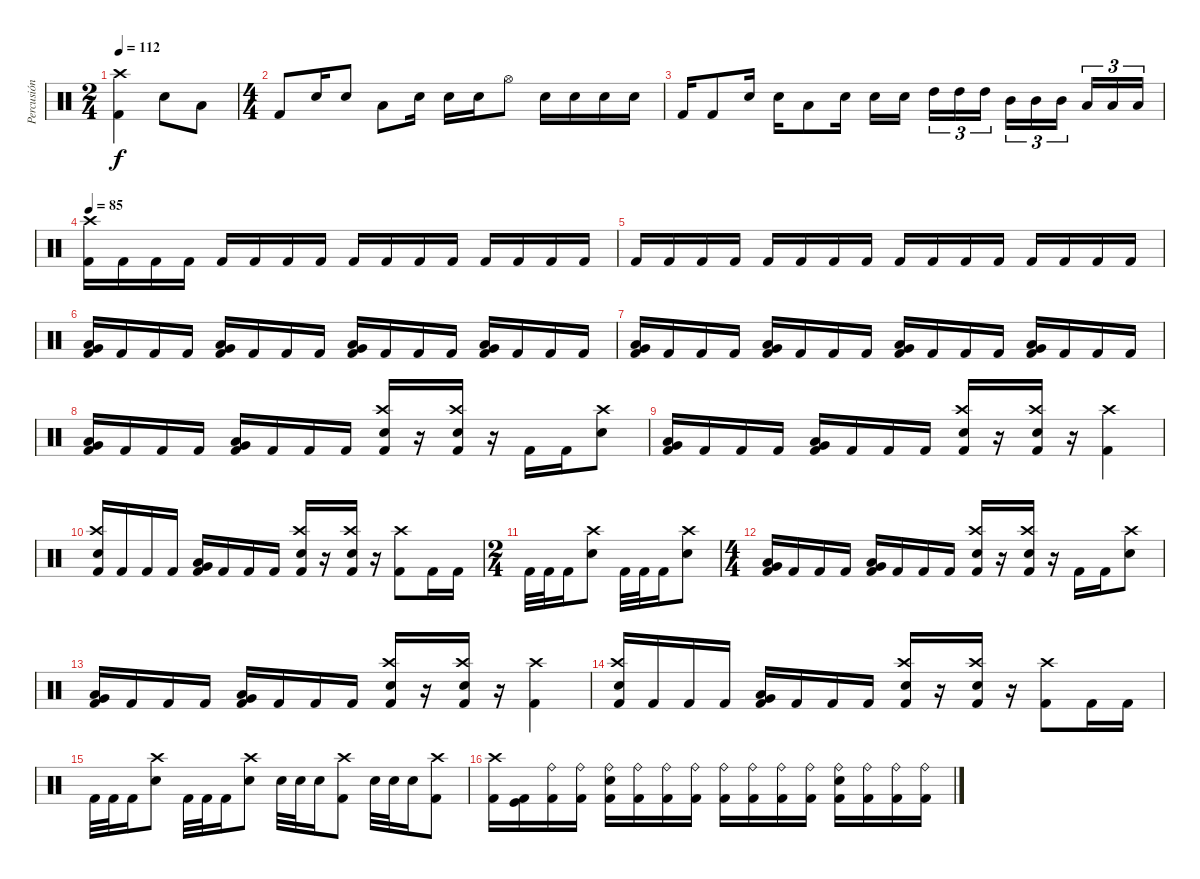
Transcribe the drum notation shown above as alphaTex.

\track ("Percusión" "Percusión") {instrument percussion}
\staff {score}
\articulation defaults
\ts (2 4)
\tempo 112
\clef neutral
\ks c
("Kick (hit) 2" "Crash high (hit)").4{dy f} "Snare (hit) 2".8 "Low Tom (hit)".8 |
\ts (4 4)
"Kick (hit) 2".8 "Snare (hit) 2".16 "Snare (hit) 2".8 "Low Tom (hit)".8 "Snare (hit) 2".16 "Snare (hit) 2".16 "Snare (hit) 2".16 "Hi-Hat (open)".8 "Snare (hit) 2".16 "Snare (hit) 2".16 "Snare (hit) 2".16 "Snare (hit) 2".16 |
"Kick (hit) 2".16 "Kick (hit) 2".8 "Snare (hit) 2".16 "Snare (hit) 2".16 "Low Tom (hit)".8 "Snare (hit) 2".16 "Snare (hit) 2".16 "Snare (hit) 2".16{beam splitsecondary} "High Tom (hit)".16{tu (3 2)} "High Tom (hit)".16{tu (3 2)} "High Tom (hit)".16{tu (3 2)} "Mid Tom (hit)".16{tu (3 2)} "Mid Tom (hit)".16{tu (3 2)} "Mid Tom (hit)".16{tu (3 2) beam splitsecondary} "Low Tom (hit)".16{tu (3 2)} "Low Tom (hit)".16{tu (3 2)} "Low Tom (hit)".16{tu (3 2)} |
\tempo 85
("Crash high (hit)" "Kick (hit) 2").16 "Kick (hit) 2".16 "Kick (hit) 2".16 "Kick (hit) 2".16 "Kick (hit) 2".16 "Kick (hit) 2".16 "Kick (hit) 2".16 "Kick (hit) 2".16 "Kick (hit) 2".16 "Kick (hit) 2".16 "Kick (hit) 2".16 "Kick (hit) 2".16 "Kick (hit) 2".16 "Kick (hit) 2".16 "Kick (hit) 2".16 "Kick (hit) 2".16 |
"Kick (hit) 2".16 "Kick (hit) 2".16 "Kick (hit) 2".16 "Kick (hit) 2".16 "Kick (hit) 2".16 "Kick (hit) 2".16 "Kick (hit) 2".16 "Kick (hit) 2".16 "Kick (hit) 2".16 "Kick (hit) 2".16 "Kick (hit) 2".16 "Kick (hit) 2".16 "Kick (hit) 2".16 "Kick (hit) 2".16 "Kick (hit) 2".16 "Kick (hit) 2".16 |
("Low Tom (hit)" "Very Low Tom (hit)" "Kick (hit) 2").16 "Kick (hit) 2".16 "Kick (hit) 2".16 "Kick (hit) 2".16 ("Very Low Tom (hit)" "Low Tom (hit)" "Kick (hit) 2").16 "Kick (hit) 2".16 "Kick (hit) 2".16 "Kick (hit) 2".16 ("Low Tom (hit)" "Very Low Tom (hit)" "Kick (hit) 2").16 "Kick (hit) 2".16 "Kick (hit) 2".16 "Kick (hit) 2".16 ("Very Low Tom (hit)" "Low Tom (hit)" "Kick (hit) 2").16 "Kick (hit) 2".16 "Kick (hit) 2".16 "Kick (hit) 2".16 |
("Low Tom (hit)" "Very Low Tom (hit)" "Kick (hit) 2").16 "Kick (hit) 2".16 "Kick (hit) 2".16 "Kick (hit) 2".16 ("Very Low Tom (hit)" "Low Tom (hit)" "Kick (hit) 2").16 "Kick (hit) 2".16 "Kick (hit) 2".16 "Kick (hit) 2".16 ("Low Tom (hit)" "Very Low Tom (hit)" "Kick (hit) 2").16 "Kick (hit) 2".16 "Kick (hit) 2".16 "Kick (hit) 2".16 ("Very Low Tom (hit)" "Low Tom (hit)" "Kick (hit) 2").16 "Kick (hit) 2".16 "Kick (hit) 2".16 "Kick (hit) 2".16 |
("Low Tom (hit)" "Very Low Tom (hit)" "Kick (hit) 2").16 "Kick (hit) 2".16 "Kick (hit) 2".16 "Kick (hit) 2".16 ("Very Low Tom (hit)" "Low Tom (hit)" "Kick (hit) 2").16 "Kick (hit) 2".16 "Kick (hit) 2".16 "Kick (hit) 2".16 ("Crash high (hit)" "Snare (hit) 2" "Kick (hit) 2").16 r.16 ("Crash high (hit)" "Snare (hit) 2" "Kick (hit) 2").16 r.16 "Kick (hit) 2".16 "Kick (hit) 2".16 ("Crash high (hit)" "Snare (hit) 2").8 |
("Low Tom (hit)" "Very Low Tom (hit)" "Kick (hit) 2").16 "Kick (hit) 2".16 "Kick (hit) 2".16 "Kick (hit) 2".16 ("Very Low Tom (hit)" "Low Tom (hit)" "Kick (hit) 2").16 "Kick (hit) 2".16 "Kick (hit) 2".16 "Kick (hit) 2".16 ("Crash high (hit)" "Snare (hit) 2" "Kick (hit) 2").16 r.16 ("Crash high (hit)" "Snare (hit) 2" "Kick (hit) 2").16 r.16 ("Crash high (hit)" "Kick (hit) 2").4 |
("Crash high (hit)" "Snare (hit) 2" "Kick (hit) 2").16 "Kick (hit) 2".16 "Kick (hit) 2".16 "Kick (hit) 2".16 ("Very Low Tom (hit)" "Low Tom (hit)" "Kick (hit) 2").16 "Kick (hit) 2".16 "Kick (hit) 2".16 "Kick (hit) 2".16 ("Crash high (hit)" "Snare (hit) 2" "Kick (hit) 2").16 r.16 ("Crash high (hit)" "Snare (hit) 2" "Kick (hit) 2").16 r.16 ("Crash high (hit)" "Kick (hit) 2").8 "Kick (hit) 2".16 "Kick (hit) 2".16 |
\ts (2 4)
"Kick (hit) 2".32 "Kick (hit) 2".32 "Kick (hit) 2".16 ("Crash high (hit)" "Snare (hit) 2").8 "Kick (hit) 2".32 "Kick (hit) 2".32 "Kick (hit) 2".16 ("Crash high (hit)" "Snare (hit) 2").8 |
\ts (4 4)
("Low Tom (hit)" "Very Low Tom (hit)" "Kick (hit) 2").16 "Kick (hit) 2".16 "Kick (hit) 2".16 "Kick (hit) 2".16 ("Very Low Tom (hit)" "Low Tom (hit)" "Kick (hit) 2").16 "Kick (hit) 2".16 "Kick (hit) 2".16 "Kick (hit) 2".16 ("Crash high (hit)" "Snare (hit) 2" "Kick (hit) 2").16 r.16 ("Crash high (hit)" "Snare (hit) 2" "Kick (hit) 2").16 r.16 "Kick (hit) 2".16 "Kick (hit) 2".16 ("Crash high (hit)" "Snare (hit) 2").8 |
("Low Tom (hit)" "Very Low Tom (hit)" "Kick (hit) 2").16 "Kick (hit) 2".16 "Kick (hit) 2".16 "Kick (hit) 2".16 ("Very Low Tom (hit)" "Low Tom (hit)" "Kick (hit) 2").16 "Kick (hit) 2".16 "Kick (hit) 2".16 "Kick (hit) 2".16 ("Crash high (hit)" "Snare (hit) 2" "Kick (hit) 2").16 r.16 ("Crash high (hit)" "Snare (hit) 2" "Kick (hit) 2").16 r.16 ("Crash high (hit)" "Kick (hit) 2").4 |
("Crash high (hit)" "Snare (hit) 2" "Kick (hit) 2").16 "Kick (hit) 2".16 "Kick (hit) 2".16 "Kick (hit) 2".16 ("Very Low Tom (hit)" "Low Tom (hit)" "Kick (hit) 2").16 "Kick (hit) 2".16 "Kick (hit) 2".16 "Kick (hit) 2".16 ("Crash high (hit)" "Snare (hit) 2" "Kick (hit) 2").16 r.16 ("Crash high (hit)" "Snare (hit) 2" "Kick (hit) 2").16 r.16 ("Crash high (hit)" "Kick (hit) 2").8 "Kick (hit) 2".16 "Kick (hit) 2".16 |
"Kick (hit) 2".32 "Kick (hit) 2".32 "Kick (hit) 2".16 ("Crash high (hit)" "Snare (hit) 2").8 "Kick (hit) 2".32 "Kick (hit) 2".32 "Kick (hit) 2".16 ("Crash high (hit)" "Snare (hit) 2").8 "Snare (hit) 2".32 "Snare (hit) 2".32 "Snare (hit) 2".16 ("Crash high (hit)" "Kick (hit) 2").8 "Snare (hit) 2".32 "Snare (hit) 2".32 "Snare (hit) 2".16 ("Crash high (hit)" "Kick (hit) 2").8 |
("Crash high (hit)" "Kick (hit) 2").16 ("Kick (hit)" "Kick (hit) 2").16 ("Ride (bell)" "Kick (hit) 2").16 ("Ride (bell)" "Kick (hit) 2").16 ("Ride (bell)" "Snare (hit) 2" "Kick (hit) 2").16 ("Ride (bell)" "Kick (hit) 2").16 ("Ride (bell)" "Kick (hit) 2").16 ("Ride (bell)" "Kick (hit) 2").16 ("Ride (bell)" "Kick (hit) 2").16 ("Ride (bell)" "Kick (hit) 2").16 ("Ride (bell)" "Kick (hit) 2").16 ("Ride (bell)" "Kick (hit) 2").16 ("Ride (bell)" "Snare (hit) 2" "Kick (hit) 2").16 ("Ride (bell)" "Kick (hit) 2").16 ("Ride (bell)" "Kick (hit) 2").16 ("Ride (bell)" "Kick (hit) 2").16
